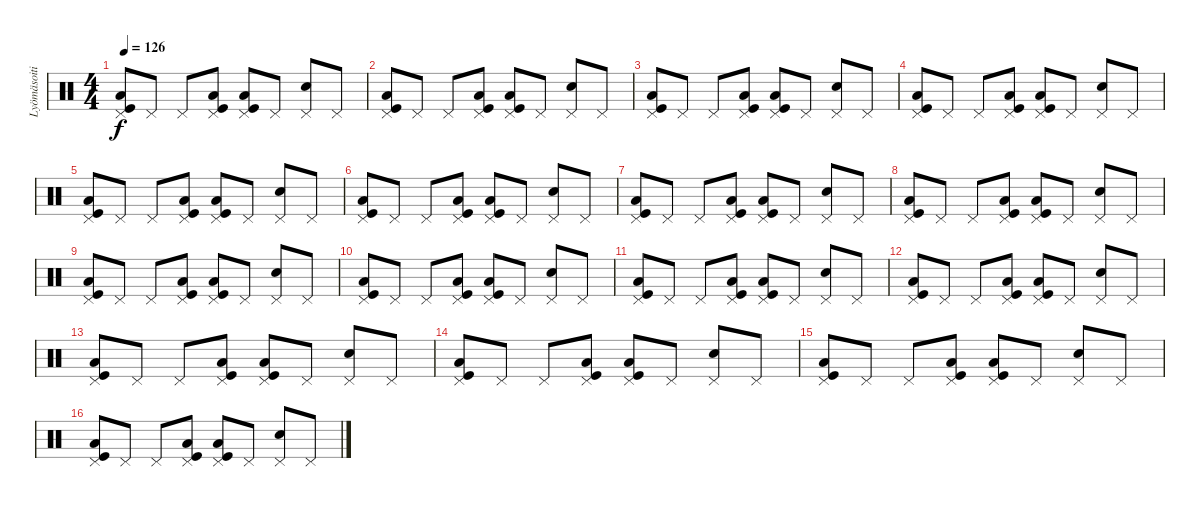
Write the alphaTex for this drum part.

\track ("Lyömäsoitin" "Lyömäsoiti") {instrument percussion}
\staff {score}
\articulation defaults
\ts (4 4)
\tempo 126
\clef neutral
\ks c
("Kick (hit)" "Low Floor Tom (hit)" "Pedal Hi-Hat (hit)").8{dy f} "Pedal Hi-Hat (hit)".8 "Pedal Hi-Hat (hit)".8 ("Kick (hit)" "Low Floor Tom (hit)" "Pedal Hi-Hat (hit)").8 ("Kick (hit)" "Low Floor Tom (hit)" "Pedal Hi-Hat (hit)").8 "Pedal Hi-Hat (hit)".8 ("Snare (hit) 2" "Pedal Hi-Hat (hit)").8 "Pedal Hi-Hat (hit)".8 |
("Kick (hit)" "Low Floor Tom (hit)" "Pedal Hi-Hat (hit)").8 "Pedal Hi-Hat (hit)".8 "Pedal Hi-Hat (hit)".8 ("Kick (hit)" "Low Floor Tom (hit)" "Pedal Hi-Hat (hit)").8 ("Kick (hit)" "Low Floor Tom (hit)" "Pedal Hi-Hat (hit)").8 "Pedal Hi-Hat (hit)".8 ("Snare (hit) 2" "Pedal Hi-Hat (hit)").8 "Pedal Hi-Hat (hit)".8 |
("Kick (hit)" "Low Floor Tom (hit)" "Pedal Hi-Hat (hit)").8 "Pedal Hi-Hat (hit)".8 "Pedal Hi-Hat (hit)".8 ("Kick (hit)" "Low Floor Tom (hit)" "Pedal Hi-Hat (hit)").8 ("Kick (hit)" "Low Floor Tom (hit)" "Pedal Hi-Hat (hit)").8 "Pedal Hi-Hat (hit)".8 ("Snare (hit) 2" "Pedal Hi-Hat (hit)").8 "Pedal Hi-Hat (hit)".8 |
("Kick (hit)" "Low Floor Tom (hit)" "Pedal Hi-Hat (hit)").8 "Pedal Hi-Hat (hit)".8 "Pedal Hi-Hat (hit)".8 ("Kick (hit)" "Low Floor Tom (hit)" "Pedal Hi-Hat (hit)").8 ("Kick (hit)" "Low Floor Tom (hit)" "Pedal Hi-Hat (hit)").8 "Pedal Hi-Hat (hit)".8 ("Snare (hit) 2" "Pedal Hi-Hat (hit)").8 "Pedal Hi-Hat (hit)".8 |
("Kick (hit)" "Low Floor Tom (hit)" "Pedal Hi-Hat (hit)").8 "Pedal Hi-Hat (hit)".8 "Pedal Hi-Hat (hit)".8 ("Kick (hit)" "Low Floor Tom (hit)" "Pedal Hi-Hat (hit)").8 ("Kick (hit)" "Low Floor Tom (hit)" "Pedal Hi-Hat (hit)").8 "Pedal Hi-Hat (hit)".8 ("Snare (hit) 2" "Pedal Hi-Hat (hit)").8 "Pedal Hi-Hat (hit)".8 |
("Kick (hit)" "Low Floor Tom (hit)" "Pedal Hi-Hat (hit)").8 "Pedal Hi-Hat (hit)".8 "Pedal Hi-Hat (hit)".8 ("Kick (hit)" "Low Floor Tom (hit)" "Pedal Hi-Hat (hit)").8 ("Kick (hit)" "Low Floor Tom (hit)" "Pedal Hi-Hat (hit)").8 "Pedal Hi-Hat (hit)".8 ("Snare (hit) 2" "Pedal Hi-Hat (hit)").8 "Pedal Hi-Hat (hit)".8 |
("Kick (hit)" "Low Floor Tom (hit)" "Pedal Hi-Hat (hit)").8 "Pedal Hi-Hat (hit)".8 "Pedal Hi-Hat (hit)".8 ("Kick (hit)" "Low Floor Tom (hit)" "Pedal Hi-Hat (hit)").8 ("Kick (hit)" "Low Floor Tom (hit)" "Pedal Hi-Hat (hit)").8 "Pedal Hi-Hat (hit)".8 ("Snare (hit) 2" "Pedal Hi-Hat (hit)").8 "Pedal Hi-Hat (hit)".8 |
("Kick (hit)" "Low Floor Tom (hit)" "Pedal Hi-Hat (hit)").8 "Pedal Hi-Hat (hit)".8 "Pedal Hi-Hat (hit)".8 ("Kick (hit)" "Low Floor Tom (hit)" "Pedal Hi-Hat (hit)").8 ("Kick (hit)" "Low Floor Tom (hit)" "Pedal Hi-Hat (hit)").8 "Pedal Hi-Hat (hit)".8 ("Snare (hit) 2" "Pedal Hi-Hat (hit)").8 "Pedal Hi-Hat (hit)".8 |
("Kick (hit)" "Low Floor Tom (hit)" "Pedal Hi-Hat (hit)").8 "Pedal Hi-Hat (hit)".8 "Pedal Hi-Hat (hit)".8 ("Kick (hit)" "Low Floor Tom (hit)" "Pedal Hi-Hat (hit)").8 ("Kick (hit)" "Low Floor Tom (hit)" "Pedal Hi-Hat (hit)").8 "Pedal Hi-Hat (hit)".8 ("Snare (hit) 2" "Pedal Hi-Hat (hit)").8 "Pedal Hi-Hat (hit)".8 |
("Kick (hit)" "Low Floor Tom (hit)" "Pedal Hi-Hat (hit)").8 "Pedal Hi-Hat (hit)".8 "Pedal Hi-Hat (hit)".8 ("Kick (hit)" "Low Floor Tom (hit)" "Pedal Hi-Hat (hit)").8 ("Kick (hit)" "Low Floor Tom (hit)" "Pedal Hi-Hat (hit)").8 "Pedal Hi-Hat (hit)".8 ("Snare (hit) 2" "Pedal Hi-Hat (hit)").8 "Pedal Hi-Hat (hit)".8 |
("Kick (hit)" "Low Floor Tom (hit)" "Pedal Hi-Hat (hit)").8 "Pedal Hi-Hat (hit)".8 "Pedal Hi-Hat (hit)".8 ("Kick (hit)" "Low Floor Tom (hit)" "Pedal Hi-Hat (hit)").8 ("Kick (hit)" "Low Floor Tom (hit)" "Pedal Hi-Hat (hit)").8 "Pedal Hi-Hat (hit)".8 ("Snare (hit) 2" "Pedal Hi-Hat (hit)").8 "Pedal Hi-Hat (hit)".8 |
("Kick (hit)" "Low Floor Tom (hit)" "Pedal Hi-Hat (hit)").8 "Pedal Hi-Hat (hit)".8 "Pedal Hi-Hat (hit)".8 ("Kick (hit)" "Low Floor Tom (hit)" "Pedal Hi-Hat (hit)").8 ("Kick (hit)" "Low Floor Tom (hit)" "Pedal Hi-Hat (hit)").8 "Pedal Hi-Hat (hit)".8 ("Snare (hit) 2" "Pedal Hi-Hat (hit)").8 "Pedal Hi-Hat (hit)".8 |
("Kick (hit)" "Low Floor Tom (hit)" "Pedal Hi-Hat (hit)").8 "Pedal Hi-Hat (hit)".8 "Pedal Hi-Hat (hit)".8 ("Kick (hit)" "Low Floor Tom (hit)" "Pedal Hi-Hat (hit)").8 ("Kick (hit)" "Low Floor Tom (hit)" "Pedal Hi-Hat (hit)").8 "Pedal Hi-Hat (hit)".8 ("Snare (hit) 2" "Pedal Hi-Hat (hit)").8 "Pedal Hi-Hat (hit)".8 |
("Kick (hit)" "Low Floor Tom (hit)" "Pedal Hi-Hat (hit)").8 "Pedal Hi-Hat (hit)".8 "Pedal Hi-Hat (hit)".8 ("Kick (hit)" "Low Floor Tom (hit)" "Pedal Hi-Hat (hit)").8 ("Kick (hit)" "Low Floor Tom (hit)" "Pedal Hi-Hat (hit)").8 "Pedal Hi-Hat (hit)".8 ("Snare (hit) 2" "Pedal Hi-Hat (hit)").8 "Pedal Hi-Hat (hit)".8 |
("Kick (hit)" "Low Floor Tom (hit)" "Pedal Hi-Hat (hit)").8 "Pedal Hi-Hat (hit)".8 "Pedal Hi-Hat (hit)".8 ("Kick (hit)" "Low Floor Tom (hit)" "Pedal Hi-Hat (hit)").8 ("Kick (hit)" "Low Floor Tom (hit)" "Pedal Hi-Hat (hit)").8 "Pedal Hi-Hat (hit)".8 ("Snare (hit) 2" "Pedal Hi-Hat (hit)").8 "Pedal Hi-Hat (hit)".8 |
("Kick (hit)" "Low Floor Tom (hit)" "Pedal Hi-Hat (hit)").8 "Pedal Hi-Hat (hit)".8 "Pedal Hi-Hat (hit)".8 ("Kick (hit)" "Low Floor Tom (hit)" "Pedal Hi-Hat (hit)").8 ("Kick (hit)" "Low Floor Tom (hit)" "Pedal Hi-Hat (hit)").8 "Pedal Hi-Hat (hit)".8 ("Snare (hit) 2" "Pedal Hi-Hat (hit)").8 "Pedal Hi-Hat (hit)".8
